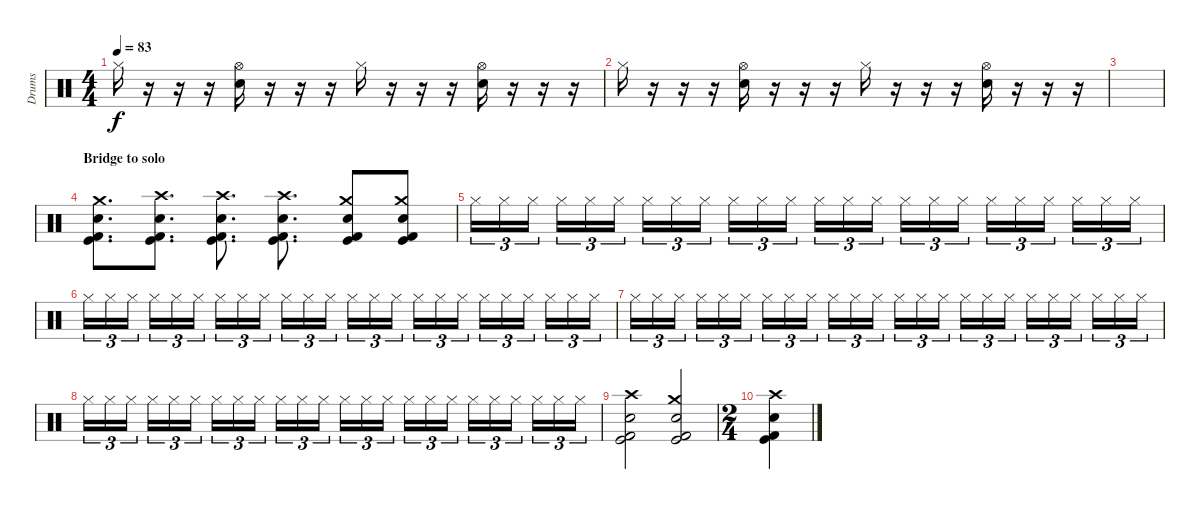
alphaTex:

\track ("Drums" "Drums") {instrument percussion}
\staff {score}
\articulation defaults
\ts (4 4)
\tempo 83
\clef neutral
\ks c "Hi-Hat (closed)".16{dy f}
r.16 r.16 r.16 ("Hi-Hat (open)" "Snare (hit) 2").16 r.16 r.16 r.16 "Hi-Hat (closed)".16 r.16 r.16 r.16 ("Hi-Hat (open)" "Snare (hit) 2").16 r.16 r.16 r.16 |
"Hi-Hat (closed)".16 r.16 r.16 r.16 ("Hi-Hat (open)" "Snare (hit) 2").16 r.16 r.16 r.16 "Hi-Hat (closed)".16 r.16 r.16 r.16 ("Hi-Hat (open)" "Snare (hit) 2").16 r.16 r.16 r.16 |
|
\section ("" "Bridge to solo")
("Crash medium (hit)" "Snare (hit) 2" "Kick (hit)" "Kick (hit) 2").8{d} ("Crash high (hit)" "Snare (hit) 2" "Kick (hit)" "Kick (hit) 2").8{d} ("Crash high (hit)" "Snare (hit) 2" "Kick (hit)" "Kick (hit) 2").8{d} ("Crash high (hit)" "Snare (hit) 2" "Kick (hit)" "Kick (hit) 2").8{d} ("Crash medium (hit)" "Snare (hit) 2" "Kick (hit)" "Kick (hit) 2").8 ("Crash medium (hit)" "Snare (hit) 2" "Kick (hit)" "Kick (hit) 2").8 |
"Hi-Hat (closed)".16{tu (3 2)} "Hi-Hat (closed)".16{tu (3 2)} "Hi-Hat (closed)".16{tu (3 2)} "Hi-Hat (closed)".16{tu (3 2)} "Hi-Hat (closed)".16{tu (3 2)} "Hi-Hat (closed)".16{tu (3 2)} "Hi-Hat (closed)".16{tu (3 2)} "Hi-Hat (closed)".16{tu (3 2)} "Hi-Hat (closed)".16{tu (3 2)} "Hi-Hat (closed)".16{tu (3 2)} "Hi-Hat (closed)".16{tu (3 2)} "Hi-Hat (closed)".16{tu (3 2)} "Hi-Hat (closed)".16{tu (3 2)} "Hi-Hat (closed)".16{tu (3 2)} "Hi-Hat (closed)".16{tu (3 2)} "Hi-Hat (closed)".16{tu (3 2)} "Hi-Hat (closed)".16{tu (3 2)} "Hi-Hat (closed)".16{tu (3 2)} "Hi-Hat (closed)".16{tu (3 2)} "Hi-Hat (closed)".16{tu (3 2)} "Hi-Hat (closed)".16{tu (3 2)} "Hi-Hat (closed)".16{tu (3 2)} "Hi-Hat (closed)".16{tu (3 2)} "Hi-Hat (closed)".16{tu (3 2)} |
"Hi-Hat (closed)".16{tu (3 2)} "Hi-Hat (closed)".16{tu (3 2)} "Hi-Hat (closed)".16{tu (3 2)} "Hi-Hat (closed)".16{tu (3 2)} "Hi-Hat (closed)".16{tu (3 2)} "Hi-Hat (closed)".16{tu (3 2)} "Hi-Hat (closed)".16{tu (3 2)} "Hi-Hat (closed)".16{tu (3 2)} "Hi-Hat (closed)".16{tu (3 2)} "Hi-Hat (closed)".16{tu (3 2)} "Hi-Hat (closed)".16{tu (3 2)} "Hi-Hat (closed)".16{tu (3 2)} "Hi-Hat (closed)".16{tu (3 2)} "Hi-Hat (closed)".16{tu (3 2)} "Hi-Hat (closed)".16{tu (3 2)} "Hi-Hat (closed)".16{tu (3 2)} "Hi-Hat (closed)".16{tu (3 2)} "Hi-Hat (closed)".16{tu (3 2)} "Hi-Hat (closed)".16{tu (3 2)} "Hi-Hat (closed)".16{tu (3 2)} "Hi-Hat (closed)".16{tu (3 2)} "Hi-Hat (closed)".16{tu (3 2)} "Hi-Hat (closed)".16{tu (3 2)} "Hi-Hat (closed)".16{tu (3 2)} |
"Hi-Hat (closed)".16{tu (3 2)} "Hi-Hat (closed)".16{tu (3 2)} "Hi-Hat (closed)".16{tu (3 2)} "Hi-Hat (closed)".16{tu (3 2)} "Hi-Hat (closed)".16{tu (3 2)} "Hi-Hat (closed)".16{tu (3 2)} "Hi-Hat (closed)".16{tu (3 2)} "Hi-Hat (closed)".16{tu (3 2)} "Hi-Hat (closed)".16{tu (3 2)} "Hi-Hat (closed)".16{tu (3 2)} "Hi-Hat (closed)".16{tu (3 2)} "Hi-Hat (closed)".16{tu (3 2)} "Hi-Hat (closed)".16{tu (3 2)} "Hi-Hat (closed)".16{tu (3 2)} "Hi-Hat (closed)".16{tu (3 2)} "Hi-Hat (closed)".16{tu (3 2)} "Hi-Hat (closed)".16{tu (3 2)} "Hi-Hat (closed)".16{tu (3 2)} "Hi-Hat (closed)".16{tu (3 2)} "Hi-Hat (closed)".16{tu (3 2)} "Hi-Hat (closed)".16{tu (3 2)} "Hi-Hat (closed)".16{tu (3 2)} "Hi-Hat (closed)".16{tu (3 2)} "Hi-Hat (closed)".16{tu (3 2)} |
"Hi-Hat (closed)".16{tu (3 2)} "Hi-Hat (closed)".16{tu (3 2)} "Hi-Hat (closed)".16{tu (3 2)} "Hi-Hat (closed)".16{tu (3 2)} "Hi-Hat (closed)".16{tu (3 2)} "Hi-Hat (closed)".16{tu (3 2)} "Hi-Hat (closed)".16{tu (3 2)} "Hi-Hat (closed)".16{tu (3 2)} "Hi-Hat (closed)".16{tu (3 2)} "Hi-Hat (closed)".16{tu (3 2)} "Hi-Hat (closed)".16{tu (3 2)} "Hi-Hat (closed)".16{tu (3 2)} "Hi-Hat (closed)".16{tu (3 2)} "Hi-Hat (closed)".16{tu (3 2)} "Hi-Hat (closed)".16{tu (3 2)} "Hi-Hat (closed)".16{tu (3 2)} "Hi-Hat (closed)".16{tu (3 2)} "Hi-Hat (closed)".16{tu (3 2)} "Hi-Hat (closed)".16{tu (3 2)} "Hi-Hat (closed)".16{tu (3 2)} "Hi-Hat (closed)".16{tu (3 2)} "Hi-Hat (closed)".16{tu (3 2)} "Hi-Hat (closed)".16{tu (3 2)} "Hi-Hat (closed)".16{tu (3 2)} |
("Crash high (hit)" "Snare (hit) 2" "Kick (hit)" "Kick (hit) 2").2 ("Crash medium (hit)" "Snare (hit) 2" "Kick (hit)" "Kick (hit) 2").2 |
\ts (2 4)
("Crash high (hit)" "Snare (hit) 2" "Kick (hit)" "Kick (hit) 2").4
